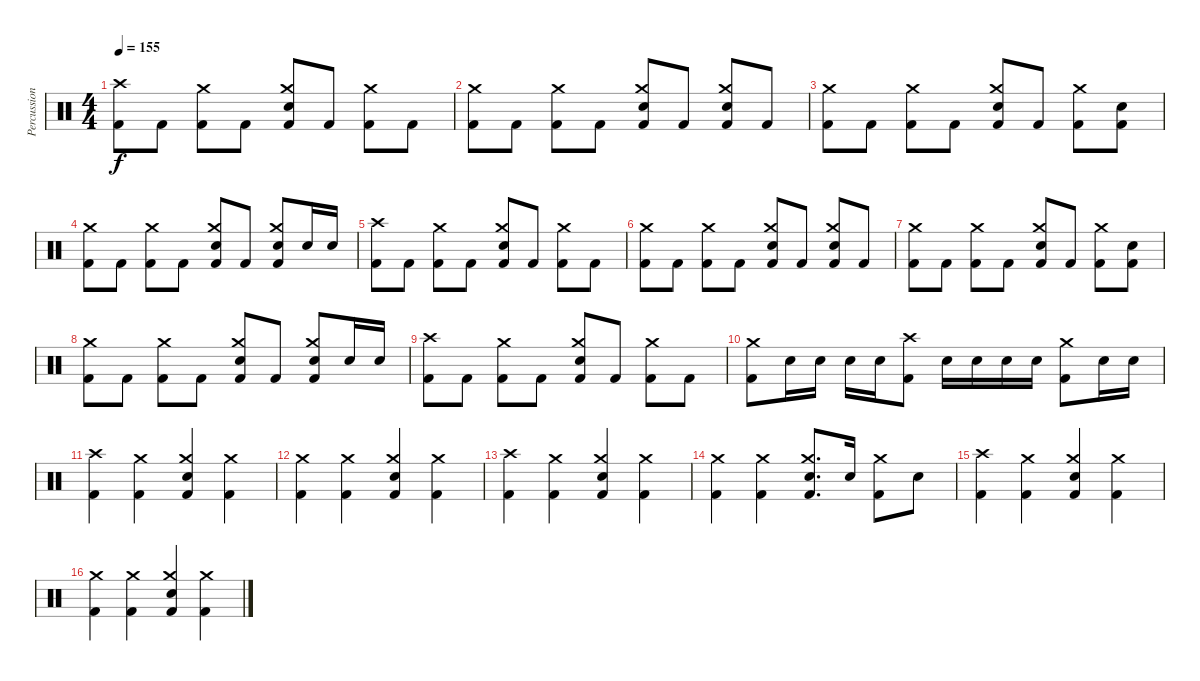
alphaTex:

\track ("Percussion" "Percussion") {instrument percussion}
\staff {score}
\articulation defaults
\ts (4 4)
\tempo 155
\clef neutral
\ks c
("Crash high (hit)" "Kick (hit) 2").8{dy f} "Kick (hit) 2".8 ("Crash medium (hit)" "Kick (hit) 2").8 "Kick (hit) 2".8 ("Crash medium (hit)" "Electric Snare (hit)" "Kick (hit) 2").8 "Kick (hit) 2".8 ("Crash medium (hit)" "Kick (hit) 2").8 "Kick (hit) 2".8 |
("Crash medium (hit)" "Kick (hit) 2").8 "Kick (hit) 2".8 ("Crash medium (hit)" "Kick (hit) 2").8 "Kick (hit) 2".8 ("Crash medium (hit)" "Electric Snare (hit)" "Kick (hit) 2").8 "Kick (hit) 2".8 ("Crash medium (hit)" "Electric Snare (hit)" "Kick (hit) 2").8 "Kick (hit) 2".8 |
("Crash medium (hit)" "Kick (hit) 2").8 "Kick (hit) 2".8 ("Crash medium (hit)" "Kick (hit) 2").8 "Kick (hit) 2".8 ("Crash medium (hit)" "Electric Snare (hit)" "Kick (hit) 2").8 "Kick (hit) 2".8 ("Crash medium (hit)" "Kick (hit) 2").8 ("Electric Snare (hit)" "Kick (hit) 2").8 |
("Crash medium (hit)" "Kick (hit) 2").8 "Kick (hit) 2".8 ("Crash medium (hit)" "Kick (hit) 2").8 "Kick (hit) 2".8 ("Crash medium (hit)" "Electric Snare (hit)" "Kick (hit) 2").8 "Kick (hit) 2".8 ("Crash medium (hit)" "Electric Snare (hit)" "Kick (hit) 2").8 "Electric Snare (hit)".16 "Electric Snare (hit)".16 |
("Crash high (hit)" "Kick (hit) 2").8 "Kick (hit) 2".8 ("Crash medium (hit)" "Kick (hit) 2").8 "Kick (hit) 2".8 ("Crash medium (hit)" "Electric Snare (hit)" "Kick (hit) 2").8 "Kick (hit) 2".8 ("Crash medium (hit)" "Kick (hit) 2").8 "Kick (hit) 2".8 |
("Crash medium (hit)" "Kick (hit) 2").8 "Kick (hit) 2".8 ("Crash medium (hit)" "Kick (hit) 2").8 "Kick (hit) 2".8 ("Crash medium (hit)" "Electric Snare (hit)" "Kick (hit) 2").8 "Kick (hit) 2".8 ("Crash medium (hit)" "Electric Snare (hit)" "Kick (hit) 2").8 "Kick (hit) 2".8 |
("Crash medium (hit)" "Kick (hit) 2").8 "Kick (hit) 2".8 ("Crash medium (hit)" "Kick (hit) 2").8 "Kick (hit) 2".8 ("Crash medium (hit)" "Electric Snare (hit)" "Kick (hit) 2").8 "Kick (hit) 2".8 ("Crash medium (hit)" "Kick (hit) 2").8 ("Electric Snare (hit)" "Kick (hit) 2").8 |
("Crash medium (hit)" "Kick (hit) 2").8 "Kick (hit) 2".8 ("Crash medium (hit)" "Kick (hit) 2").8 "Kick (hit) 2".8 ("Crash medium (hit)" "Electric Snare (hit)" "Kick (hit) 2").8 "Kick (hit) 2".8 ("Crash medium (hit)" "Electric Snare (hit)" "Kick (hit) 2").8 "Electric Snare (hit)".16 "Electric Snare (hit)".16 |
("Crash high (hit)" "Kick (hit) 2").8 "Kick (hit) 2".8 ("Crash medium (hit)" "Kick (hit) 2").8 "Kick (hit) 2".8 ("Crash medium (hit)" "Electric Snare (hit)" "Kick (hit) 2").8 "Kick (hit) 2".8 ("Crash medium (hit)" "Kick (hit) 2").8 "Kick (hit) 2".8 |
("Crash medium (hit)" "Kick (hit) 2").8 "Electric Snare (hit)".16 "Electric Snare (hit)".16 "Electric Snare (hit)".16 "Electric Snare (hit)".16 ("Crash high (hit)" "Kick (hit) 2").8 "Electric Snare (hit)".16 "Electric Snare (hit)".16 "Electric Snare (hit)".16 "Electric Snare (hit)".16 ("Crash medium (hit)" "Kick (hit) 2").8 "Electric Snare (hit)".16 "Electric Snare (hit)".16 |
("Crash high (hit)" "Kick (hit) 2").4 ("Crash medium (hit)" "Kick (hit) 2").4 ("Crash medium (hit)" "Electric Snare (hit)" "Kick (hit) 2").4 ("Crash medium (hit)" "Kick (hit) 2").4 |
("Crash medium (hit)" "Kick (hit) 2").4 ("Crash medium (hit)" "Kick (hit) 2").4 ("Crash medium (hit)" "Electric Snare (hit)" "Kick (hit) 2").4 ("Crash medium (hit)" "Kick (hit) 2").4 |
("Crash high (hit)" "Kick (hit) 2").4 ("Crash medium (hit)" "Kick (hit) 2").4 ("Crash medium (hit)" "Electric Snare (hit)" "Kick (hit) 2").4 ("Crash medium (hit)" "Kick (hit) 2").4 |
("Crash medium (hit)" "Kick (hit) 2").4 ("Crash medium (hit)" "Kick (hit) 2").4 ("Crash medium (hit)" "Electric Snare (hit)" "Kick (hit) 2").8{d} "Electric Snare (hit)".16 ("Crash medium (hit)" "Kick (hit) 2").8 "Electric Snare (hit)".8 |
("Crash high (hit)" "Kick (hit) 2").4 ("Crash medium (hit)" "Kick (hit) 2").4 ("Crash medium (hit)" "Electric Snare (hit)" "Kick (hit) 2").4 ("Crash medium (hit)" "Kick (hit) 2").4 |
("Crash medium (hit)" "Kick (hit) 2").4 ("Crash medium (hit)" "Kick (hit) 2").4 ("Crash medium (hit)" "Electric Snare (hit)" "Kick (hit) 2").4 ("Crash medium (hit)" "Kick (hit) 2").4
